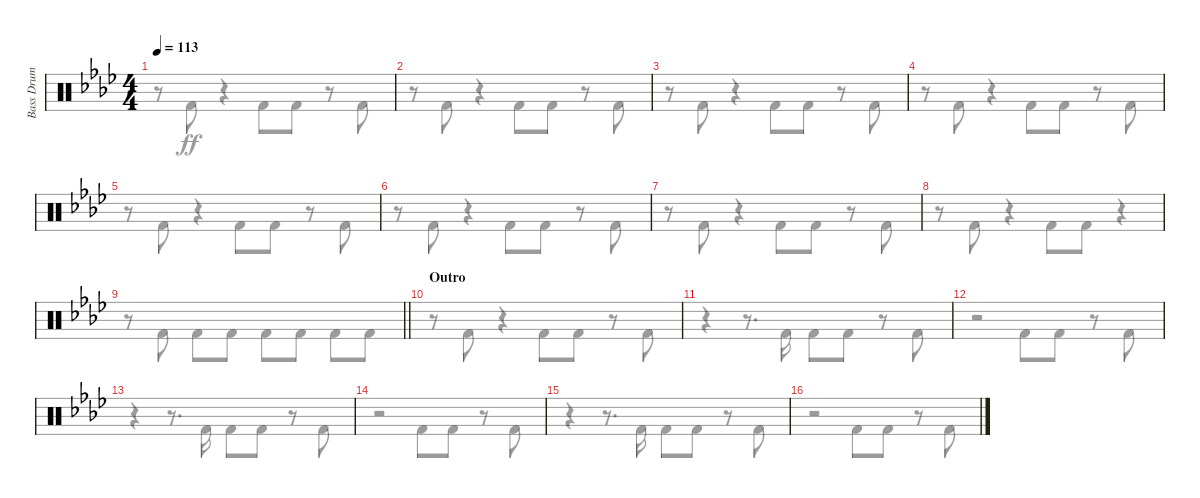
\track ("Bass Drum" "Bass Drum") {instrument percussion}
\staff {score}
\articulation defaults
\voice
\ts (4 4)
\tempo 113
\clef neutral
\ks fminor
|
|
|
|
|
|
|
|
\barLineRight lightlight
|
\section ("" "Outro")
|
|
|
|
|
|
\voice
\clef neutral
\ks fminor
r.8{dy ff} "Kick (hit) 2".8 r.4 "Kick (hit) 2".8 "Kick (hit) 2".8 r.8 "Kick (hit) 2".8 |
r.8 "Kick (hit) 2".8 r.4 "Kick (hit) 2".8 "Kick (hit) 2".8 r.8 "Kick (hit) 2".8 |
r.8 "Kick (hit) 2".8 r.4 "Kick (hit) 2".8 "Kick (hit) 2".8 r.8 "Kick (hit) 2".8 |
r.8 "Kick (hit) 2".8 r.4 "Kick (hit) 2".8 "Kick (hit) 2".8 r.8 "Kick (hit) 2".8 |
r.8 "Kick (hit) 2".8 r.4 "Kick (hit) 2".8 "Kick (hit) 2".8 r.8 "Kick (hit) 2".8 |
r.8 "Kick (hit) 2".8 r.4 "Kick (hit) 2".8 "Kick (hit) 2".8 r.8 "Kick (hit) 2".8 |
r.8 "Kick (hit) 2".8 r.4 "Kick (hit) 2".8 "Kick (hit) 2".8 r.8 "Kick (hit) 2".8 |
r.8 "Kick (hit) 2".8 r.4 "Kick (hit) 2".8 "Kick (hit) 2".8 r.4 |
\barLineRight lightlight
r.8 "Kick (hit) 2".8 "Kick (hit) 2".8 "Kick (hit) 2".8 "Kick (hit) 2".8 "Kick (hit) 2".8 "Kick (hit) 2".8 "Kick (hit) 2".8 |
r.8 "Kick (hit) 2".8 r.4 "Kick (hit) 2".8 "Kick (hit) 2".8 r.8 "Kick (hit) 2".8 |
r.4 r.8{d} "Kick (hit) 2".16 "Kick (hit) 2".8 "Kick (hit) 2".8 r.8 "Kick (hit) 2".8 |
r.2 "Kick (hit) 2".8 "Kick (hit) 2".8 r.8 "Kick (hit) 2".8 |
r.4 r.8{d} "Kick (hit) 2".16 "Kick (hit) 2".8 "Kick (hit) 2".8 r.8 "Kick (hit) 2".8 |
r.2 "Kick (hit) 2".8 "Kick (hit) 2".8 r.8 "Kick (hit) 2".8 |
r.4 r.8{d} "Kick (hit) 2".16 "Kick (hit) 2".8 "Kick (hit) 2".8 r.8 "Kick (hit) 2".8 |
r.2 "Kick (hit) 2".8 "Kick (hit) 2".8 r.8 "Kick (hit) 2".8
